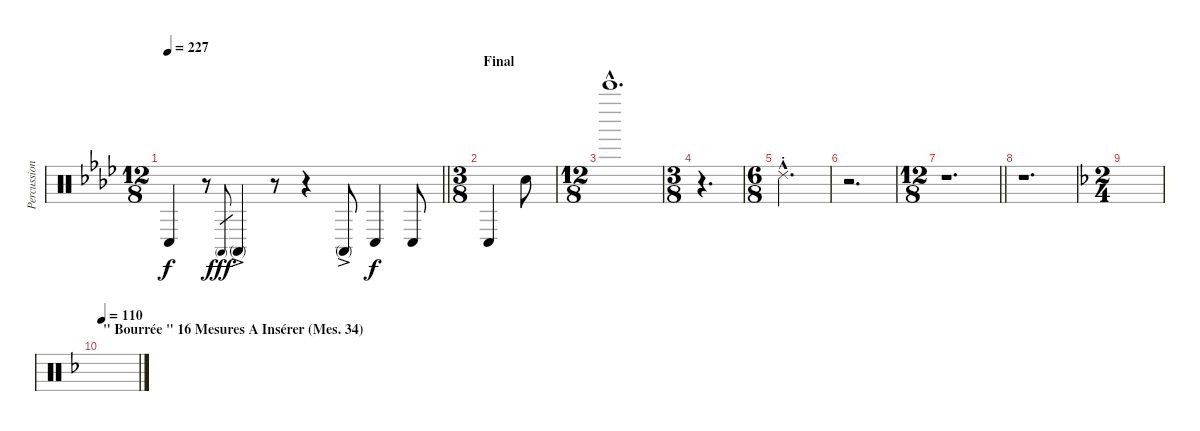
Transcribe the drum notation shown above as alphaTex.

\track ("Percussions" "Percussion") {instrument percussion}
\staff {score}
\articulation defaults
\ts (12 8)
\tempo 227
\clef neutral
\barLineRight lightlight
\ks fminor "Conga low (hit)".4{dy f}
r.8 "Conga high (mute)".8{gr dy fff} "Conga high (mute)"{ac}.4 r.8 r.4 "Conga high (mute)"{ac}.8 "Conga low (hit)".4{dy f} "Conga low (hit)".8 |
\ts (3 8)
\section ("" "Final")
"Conga low (hit)".4{volume 12 balance 8} "Metronome (bell)".8 |
\ts (12 8)
"Bell Tree (hit)"{hac}.1{d} |
\ts (3 8)
r.4{d} |
\ts (6 8)
"Ride (choke) 2"{hac}.2{d} |
r.2{d} |
\ts (12 8)
\barLineRight lightlight
r.1{d} |
r.1{d} |
\ts (2 4)
\ks dminor
|
\section ("" "\" Bourrée \" 16 Mesures A Insérer (Mes. 34)")
\tempo 110
